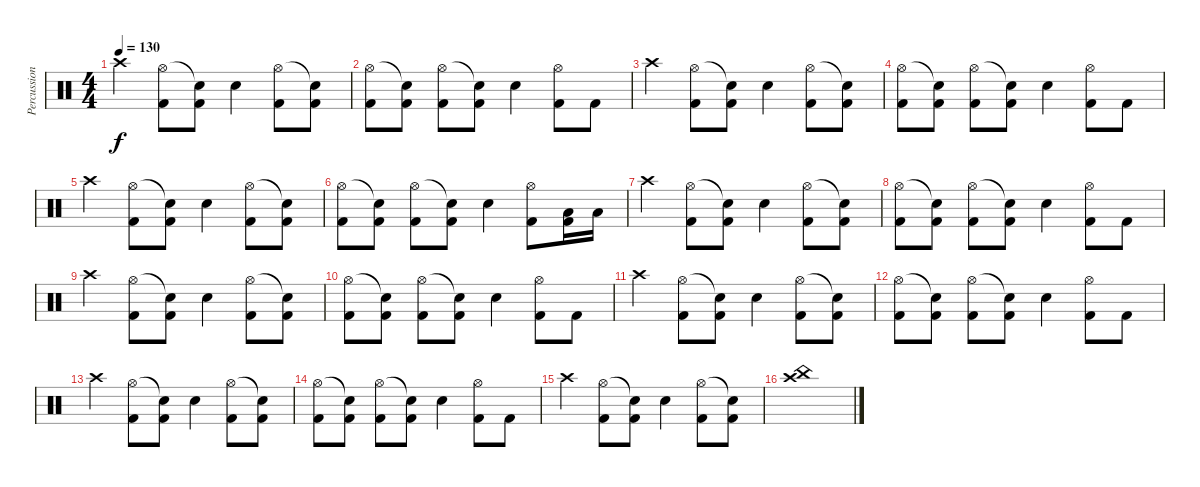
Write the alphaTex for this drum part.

\track ("Percussions" "Percussion") {instrument percussion}
\staff {score}
\articulation defaults
\ts (4 4)
\tempo 130
\clef neutral
\ks c "Crash high (hit)".4{dy f}
("Hi-Hat (open)" "Kick (hit) 2").8 ("Snare (hit)"{t} "Kick (hit) 2").8 "Electric Snare (hit)".4 ("Hi-Hat (open)" "Kick (hit) 2").8 ("Snare (hit)"{t} "Kick (hit) 2").8 |
("Hi-Hat (open)" "Kick (hit) 2").8 ("Snare (hit)"{t} "Kick (hit) 2").8 ("Hi-Hat (open)" "Kick (hit) 2").8 ("Snare (hit)"{t} "Kick (hit) 2").8 "Electric Snare (hit)".4 ("Hi-Hat (open)" "Kick (hit) 2").8 "Kick (hit) 2".8 |
"Crash high (hit)".4 ("Hi-Hat (open)" "Kick (hit) 2").8 ("Snare (hit)"{t} "Kick (hit) 2").8 "Electric Snare (hit)".4 ("Hi-Hat (open)" "Kick (hit) 2").8 ("Snare (hit)"{t} "Kick (hit) 2").8 |
("Hi-Hat (open)" "Kick (hit) 2").8 ("Snare (hit)"{t} "Kick (hit) 2").8 ("Hi-Hat (open)" "Kick (hit) 2").8 ("Snare (hit)"{t} "Kick (hit) 2").8 "Electric Snare (hit)".4 ("Hi-Hat (open)" "Kick (hit) 2").8 "Kick (hit) 2".8 |
"Crash high (hit)".4 ("Hi-Hat (open)" "Kick (hit) 2").8 ("Snare (hit)"{t} "Kick (hit) 2").8 "Electric Snare (hit)".4 ("Hi-Hat (open)" "Kick (hit) 2").8 ("Snare (hit)"{t} "Kick (hit) 2").8 |
("Hi-Hat (open)" "Kick (hit) 2").8 ("Snare (hit)"{t} "Kick (hit) 2").8 ("Hi-Hat (open)" "Kick (hit) 2").8 ("Snare (hit)"{t} "Kick (hit) 2").8 "Electric Snare (hit)".4 ("Hi-Hat (open)" "Kick (hit) 2").8 ("Low Tom (hit)" "Kick (hit) 2").16 "Low Tom (hit)".16 |
"Crash high (hit)".4 ("Hi-Hat (open)" "Kick (hit) 2").8 ("Snare (hit)"{t} "Kick (hit) 2").8 "Electric Snare (hit)".4 ("Hi-Hat (open)" "Kick (hit) 2").8 ("Snare (hit)"{t} "Kick (hit) 2").8 |
("Hi-Hat (open)" "Kick (hit) 2").8 ("Snare (hit)"{t} "Kick (hit) 2").8 ("Hi-Hat (open)" "Kick (hit) 2").8 ("Snare (hit)"{t} "Kick (hit) 2").8 "Electric Snare (hit)".4 ("Hi-Hat (open)" "Kick (hit) 2").8 "Kick (hit) 2".8 |
"Crash high (hit)".4 ("Hi-Hat (open)" "Kick (hit) 2").8 ("Snare (hit)"{t} "Kick (hit) 2").8 "Electric Snare (hit)".4 ("Hi-Hat (open)" "Kick (hit) 2").8 ("Snare (hit)"{t} "Kick (hit) 2").8 |
("Hi-Hat (open)" "Kick (hit) 2").8 ("Snare (hit)"{t} "Kick (hit) 2").8 ("Hi-Hat (open)" "Kick (hit) 2").8 ("Snare (hit)"{t} "Kick (hit) 2").8 "Electric Snare (hit)".4 ("Hi-Hat (open)" "Kick (hit) 2").8 "Kick (hit) 2".8 |
"Crash high (hit)".4 ("Hi-Hat (open)" "Kick (hit) 2").8 ("Snare (hit)"{t} "Kick (hit) 2").8 "Electric Snare (hit)".4 ("Hi-Hat (open)" "Kick (hit) 2").8 ("Snare (hit)"{t} "Kick (hit) 2").8 |
("Hi-Hat (open)" "Kick (hit) 2").8 ("Snare (hit)"{t} "Kick (hit) 2").8 ("Hi-Hat (open)" "Kick (hit) 2").8 ("Snare (hit)"{t} "Kick (hit) 2").8 "Electric Snare (hit)".4 ("Hi-Hat (open)" "Kick (hit) 2").8 "Kick (hit) 2".8 |
"Crash high (hit)".4 ("Hi-Hat (open)" "Kick (hit) 2").8 ("Snare (hit)"{t} "Kick (hit) 2").8 "Electric Snare (hit)".4 ("Hi-Hat (open)" "Kick (hit) 2").8 ("Snare (hit)"{t} "Kick (hit) 2").8 |
("Hi-Hat (open)" "Kick (hit) 2").8 ("Snare (hit)"{t} "Kick (hit) 2").8 ("Hi-Hat (open)" "Kick (hit) 2").8 ("Snare (hit)"{t} "Kick (hit) 2").8 "Electric Snare (hit)".4 ("Hi-Hat (open)" "Kick (hit) 2").8 "Kick (hit) 2".8 |
"Crash high (hit)".4 ("Hi-Hat (open)" "Kick (hit) 2").8 ("Snare (hit)"{t} "Kick (hit) 2").8 "Electric Snare (hit)".4 ("Hi-Hat (open)" "Kick (hit) 2").8 ("Snare (hit)"{t} "Kick (hit) 2").8 |
("China (hit)" "Crash high (hit)").1
